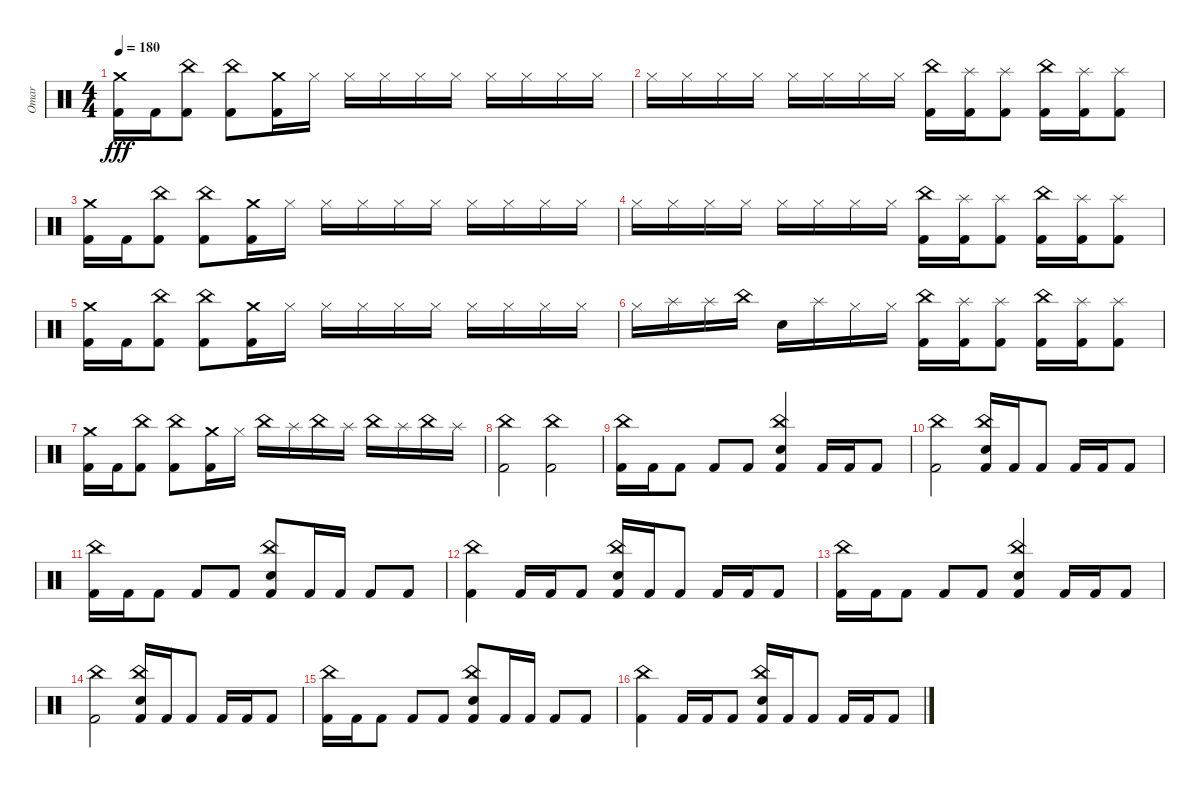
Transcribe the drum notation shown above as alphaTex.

\track ("Omar" "Omar") {instrument percussion}
\staff {score}
\articulation defaults
\ts (4 4)
\tempo 180
\clef neutral
\ks c
("Crash medium (hit)" "Kick (hit) 2").16{dy fff} "Kick (hit) 2".16 ("China (hit)" "Kick (hit) 2").8 ("China (hit)" "Kick (hit) 2").8 ("Crash medium (hit)" "Kick (hit) 2").16 "Hi-Hat (closed)".16 "Hi-Hat (closed)".16 "Hi-Hat (closed)".16 "Hi-Hat (closed)".16 "Hi-Hat (closed)".16 "Hi-Hat (closed)".16 "Hi-Hat (closed)".16 "Hi-Hat (closed)".16 "Hi-Hat (closed)".16 |
"Hi-Hat (closed)".16 "Hi-Hat (closed)".16 "Hi-Hat (closed)".16 "Hi-Hat (closed)".16 "Hi-Hat (closed)".16 "Hi-Hat (closed)".16 "Hi-Hat (closed)".16 "Hi-Hat (closed)".16 ("China (hit)" "Kick (hit) 2").16 ("Splash (hit)" "Kick (hit) 2").16 ("Splash (hit)" "Kick (hit) 2").8 ("China (hit)" "Kick (hit) 2").16 ("Splash (hit)" "Kick (hit) 2").16 ("Splash (hit)" "Kick (hit) 2").8 |
("Crash medium (hit)" "Kick (hit) 2").16 "Kick (hit) 2".16 ("China (hit)" "Kick (hit) 2").8 ("China (hit)" "Kick (hit) 2").8 ("Crash medium (hit)" "Kick (hit) 2").16 "Hi-Hat (closed)".16 "Hi-Hat (closed)".16 "Hi-Hat (closed)".16 "Hi-Hat (closed)".16 "Hi-Hat (closed)".16 "Hi-Hat (closed)".16 "Hi-Hat (closed)".16 "Hi-Hat (closed)".16 "Hi-Hat (closed)".16 |
"Hi-Hat (closed)".16 "Hi-Hat (closed)".16 "Hi-Hat (closed)".16 "Hi-Hat (closed)".16 "Hi-Hat (closed)".16 "Hi-Hat (closed)".16 "Hi-Hat (closed)".16 "Hi-Hat (closed)".16 ("China (hit)" "Kick (hit) 2").16 ("Splash (hit)" "Kick (hit) 2").16 ("Splash (hit)" "Kick (hit) 2").8 ("China (hit)" "Kick (hit) 2").16 ("Splash (hit)" "Kick (hit) 2").16 ("Splash (hit)" "Kick (hit) 2").8 |
("Crash medium (hit)" "Kick (hit) 2").16 "Kick (hit) 2".16 ("China (hit)" "Kick (hit) 2").8 ("China (hit)" "Kick (hit) 2").8 ("Crash medium (hit)" "Kick (hit) 2").16 "Hi-Hat (closed)".16 "Hi-Hat (closed)".16 "Hi-Hat (closed)".16 "Hi-Hat (closed)".16 "Hi-Hat (closed)".16 "Hi-Hat (closed)".16 "Hi-Hat (closed)".16 "Hi-Hat (closed)".16 "Hi-Hat (closed)".16 |
"Hi-Hat (closed)".16 "Splash (hit)".16 "Splash (hit)".16 "China (hit)".16 "Snare (hit)".16 "Splash (hit)".16 "Hi-Hat (closed)".16 "Hi-Hat (closed)".16 ("China (hit)" "Kick (hit) 2").16 ("Splash (hit)" "Kick (hit) 2").16 ("Splash (hit)" "Kick (hit) 2").8 ("China (hit)" "Kick (hit) 2").16 ("Splash (hit)" "Kick (hit) 2").16 ("Splash (hit)" "Kick (hit) 2").8 |
("Crash medium (hit)" "Kick (hit) 2").16 "Kick (hit) 2".16 ("China (hit)" "Kick (hit) 2").8 ("China (hit)" "Kick (hit) 2").8 ("Crash medium (hit)" "Kick (hit) 2").16 "Hi-Hat (closed)".16 "China (hit)".16 "Splash (hit)".16 "China (hit)".16 "Splash (hit)".16 "China (hit)".16 "Splash (hit)".16 "China (hit)".16 "Splash (hit)".16 |
("China (hit)" "Kick (hit) 2").2 ("China (hit)" "Kick (hit) 2").2 |
("China (hit)" "Kick (hit) 2").16 "Kick (hit) 2".16 "Kick (hit) 2".8 "Kick (hit) 2".8 "Kick (hit) 2".8 ("China (hit)" "Electric Snare (hit)" "Kick (hit) 2").4 "Kick (hit) 2".16 "Kick (hit) 2".16 "Kick (hit) 2".8 |
("China (hit)" "Kick (hit) 2").2 ("China (hit)" "Electric Snare (hit)" "Kick (hit) 2").16 "Kick (hit) 2".16 "Kick (hit) 2".8 "Kick (hit) 2".16 "Kick (hit) 2".16 "Kick (hit) 2".8 |
("China (hit)" "Kick (hit) 2").16 "Kick (hit) 2".16 "Kick (hit) 2".8 "Kick (hit) 2".8 "Kick (hit) 2".8 ("China (hit)" "Electric Snare (hit)" "Kick (hit) 2").8 "Kick (hit) 2".16 "Kick (hit) 2".16 "Kick (hit) 2".8 "Kick (hit) 2".8 |
("China (hit)" "Kick (hit) 2").4 "Kick (hit) 2".16 "Kick (hit) 2".16 "Kick (hit) 2".8 ("China (hit)" "Electric Snare (hit)" "Kick (hit) 2").16 "Kick (hit) 2".16 "Kick (hit) 2".8 "Kick (hit) 2".16 "Kick (hit) 2".16 "Kick (hit) 2".8 |
("China (hit)" "Kick (hit) 2").16 "Kick (hit) 2".16 "Kick (hit) 2".8 "Kick (hit) 2".8 "Kick (hit) 2".8 ("China (hit)" "Electric Snare (hit)" "Kick (hit) 2").4 "Kick (hit) 2".16 "Kick (hit) 2".16 "Kick (hit) 2".8 |
("China (hit)" "Kick (hit) 2").2 ("China (hit)" "Electric Snare (hit)" "Kick (hit) 2").16 "Kick (hit) 2".16 "Kick (hit) 2".8 "Kick (hit) 2".16 "Kick (hit) 2".16 "Kick (hit) 2".8 |
("China (hit)" "Kick (hit) 2").16 "Kick (hit) 2".16 "Kick (hit) 2".8 "Kick (hit) 2".8 "Kick (hit) 2".8 ("China (hit)" "Electric Snare (hit)" "Kick (hit) 2").8 "Kick (hit) 2".16 "Kick (hit) 2".16 "Kick (hit) 2".8 "Kick (hit) 2".8 |
("China (hit)" "Kick (hit) 2").4 "Kick (hit) 2".16 "Kick (hit) 2".16 "Kick (hit) 2".8 ("China (hit)" "Electric Snare (hit)" "Kick (hit) 2").16 "Kick (hit) 2".16 "Kick (hit) 2".8 "Kick (hit) 2".16 "Kick (hit) 2".16 "Kick (hit) 2".8
